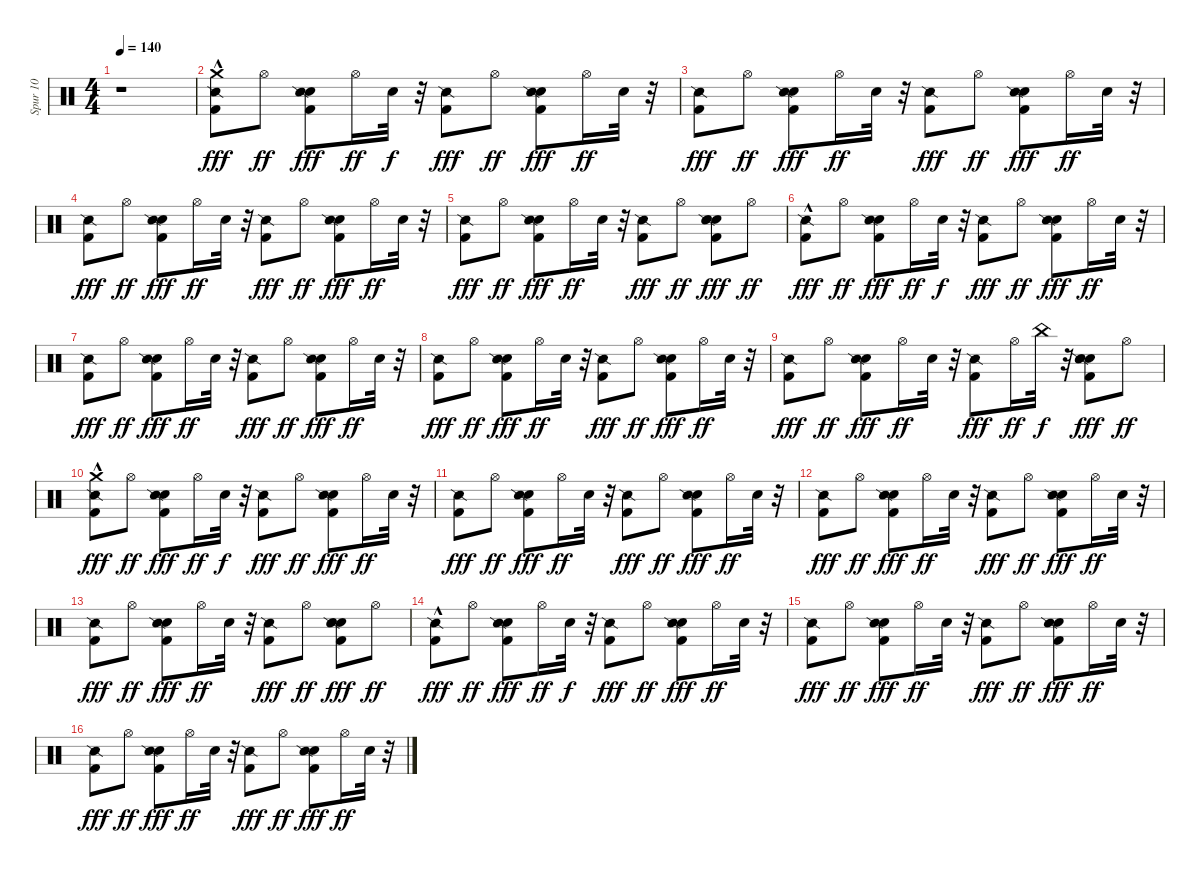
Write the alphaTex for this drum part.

\track ("Spur 10" "Spur 10") {instrument percussion}
\staff {score}
\articulation defaults
\ts (4 4)
\tempo 140
\clef neutral
\ks c
r.1{dy ff} |
("Kick (hit) 2"{hac} "Snare (side stick) 2" "Crash medium (hit)"{hac}).8{dy fff} "Hi-Hat (open)".8{dy ff} ("Kick (hit) 2" "Hand Clap (hit)" "Snare (side stick) 2").8{dy fff} "Hi-Hat (open)".16{dy ff} "Snare (hit) 2".32{dy f} r.32 ("Kick (hit) 2" "Snare (side stick) 2").8{dy fff} "Hi-Hat (open)".8{dy ff} ("Kick (hit) 2" "Hand Clap (hit)" "Snare (side stick) 2").8{dy fff} "Hi-Hat (open)".16{dy ff} "Snare (hit) 2".32 r.32 |
("Kick (hit) 2" "Snare (side stick) 2").8{dy fff} "Hi-Hat (open)".8{dy ff} ("Kick (hit) 2" "Hand Clap (hit)" "Snare (side stick) 2").8{dy fff} "Hi-Hat (open)".16{dy ff} "Snare (hit) 2".32 r.32 ("Kick (hit) 2" "Snare (side stick) 2").8{dy fff} "Hi-Hat (open)".8{dy ff} ("Kick (hit) 2" "Hand Clap (hit)" "Snare (side stick) 2").8{dy fff} "Hi-Hat (open)".16{dy ff} "Snare (hit) 2".32 r.32 |
("Kick (hit) 2" "Snare (side stick) 2").8{dy fff} "Hi-Hat (open)".8{dy ff} ("Kick (hit) 2" "Hand Clap (hit)" "Snare (side stick) 2").8{dy fff} "Hi-Hat (open)".16{dy ff} "Snare (hit) 2".32 r.32 ("Kick (hit) 2" "Snare (side stick) 2").8{dy fff} "Hi-Hat (open)".8{dy ff} ("Kick (hit) 2" "Hand Clap (hit)" "Snare (side stick) 2").8{dy fff} "Hi-Hat (open)".16{dy ff} "Snare (hit) 2".32 r.32 |
("Kick (hit) 2" "Snare (side stick) 2").8{dy fff} "Hi-Hat (open)".8{dy ff} ("Kick (hit) 2" "Hand Clap (hit)" "Snare (side stick) 2").8{dy fff} "Hi-Hat (open)".16{dy ff} "Snare (hit) 2".32 r.32 ("Kick (hit) 2" "Snare (side stick) 2").8{dy fff} "Hi-Hat (open)".8{dy ff} ("Kick (hit) 2" "Hand Clap (hit)" "Snare (hit) 2" "Snare (side stick) 2").8{dy fff} "Hi-Hat (open)".8{dy ff} |
("Kick (hit) 2"{hac} "Snare (side stick) 2").8{dy fff} "Hi-Hat (open)".8{dy ff} ("Kick (hit) 2" "Hand Clap (hit)" "Snare (side stick) 2").8{dy fff} "Hi-Hat (open)".16{dy ff} "Snare (hit) 2".32{dy f} r.32 ("Kick (hit) 2" "Snare (side stick) 2").8{dy fff} "Hi-Hat (open)".8{dy ff} ("Kick (hit) 2" "Hand Clap (hit)" "Snare (side stick) 2").8{dy fff} "Hi-Hat (open)".16{dy ff} "Snare (hit) 2".32 r.32 |
("Kick (hit) 2" "Snare (side stick) 2").8{dy fff} "Hi-Hat (open)".8{dy ff} ("Kick (hit) 2" "Hand Clap (hit)" "Snare (side stick) 2").8{dy fff} "Hi-Hat (open)".16{dy ff} "Snare (hit) 2".32 r.32 ("Kick (hit) 2" "Snare (side stick) 2").8{dy fff} "Hi-Hat (open)".8{dy ff} ("Kick (hit) 2" "Hand Clap (hit)" "Snare (side stick) 2").8{dy fff} "Hi-Hat (open)".16{dy ff} "Snare (hit) 2".32 r.32 |
("Kick (hit) 2" "Snare (side stick) 2").8{dy fff} "Hi-Hat (open)".8{dy ff} ("Kick (hit) 2" "Hand Clap (hit)" "Snare (side stick) 2").8{dy fff} "Hi-Hat (open)".16{dy ff} "Snare (hit) 2".32 r.32 ("Kick (hit) 2" "Snare (side stick) 2").8{dy fff} "Hi-Hat (open)".8{dy ff} ("Kick (hit) 2" "Hand Clap (hit)" "Snare (side stick) 2").8{dy fff} "Hi-Hat (open)".16{dy ff} "Snare (hit) 2".32 r.32 |
("Kick (hit) 2" "Snare (side stick) 2").8{dy fff} "Hi-Hat (open)".8{dy ff} ("Kick (hit) 2" "Hand Clap (hit)" "Snare (side stick) 2").8{dy fff} "Hi-Hat (open)".16{dy ff} "Snare (hit) 2".32 r.32 ("Kick (hit) 2" "Snare (side stick) 2").8{dy fff} "Hi-Hat (open)".16{dy ff} "China (hit)".32{dy f} r.32 ("Kick (hit) 2" "Hand Clap (hit)" "Snare (hit) 2" "Snare (side stick) 2").8{dy fff} "Hi-Hat (open)".8{dy ff} |
("Kick (hit) 2"{hac} "Snare (side stick) 2" "Crash medium (hit)").8{dy fff} "Hi-Hat (open)".8{dy ff} ("Kick (hit) 2" "Hand Clap (hit)" "Snare (side stick) 2").8{dy fff} "Hi-Hat (open)".16{dy ff} "Snare (hit) 2".32{dy f} r.32 ("Kick (hit) 2" "Snare (side stick) 2").8{dy fff} "Hi-Hat (open)".8{dy ff} ("Kick (hit) 2" "Hand Clap (hit)" "Snare (side stick) 2").8{dy fff} "Hi-Hat (open)".16{dy ff} "Snare (hit) 2".32 r.32 |
("Kick (hit) 2" "Snare (side stick) 2").8{dy fff} "Hi-Hat (open)".8{dy ff} ("Kick (hit) 2" "Hand Clap (hit)" "Snare (side stick) 2").8{dy fff} "Hi-Hat (open)".16{dy ff} "Snare (hit) 2".32 r.32 ("Kick (hit) 2" "Snare (side stick) 2").8{dy fff} "Hi-Hat (open)".8{dy ff} ("Kick (hit) 2" "Hand Clap (hit)" "Snare (side stick) 2").8{dy fff} "Hi-Hat (open)".16{dy ff} "Snare (hit) 2".32 r.32 |
("Kick (hit) 2" "Snare (side stick) 2").8{dy fff} "Hi-Hat (open)".8{dy ff} ("Kick (hit) 2" "Hand Clap (hit)" "Snare (side stick) 2").8{dy fff} "Hi-Hat (open)".16{dy ff} "Snare (hit) 2".32 r.32 ("Kick (hit) 2" "Snare (side stick) 2").8{dy fff} "Hi-Hat (open)".8{dy ff} ("Kick (hit) 2" "Hand Clap (hit)" "Snare (side stick) 2").8{dy fff} "Hi-Hat (open)".16{dy ff} "Snare (hit) 2".32 r.32 |
("Kick (hit) 2" "Snare (side stick) 2").8{dy fff} "Hi-Hat (open)".8{dy ff} ("Kick (hit) 2" "Hand Clap (hit)" "Snare (side stick) 2").8{dy fff} "Hi-Hat (open)".16{dy ff} "Snare (hit) 2".32 r.32 ("Kick (hit) 2" "Snare (side stick) 2").8{dy fff} "Hi-Hat (open)".8{dy ff} ("Kick (hit) 2" "Hand Clap (hit)" "Snare (hit) 2" "Snare (side stick) 2").8{dy fff} "Hi-Hat (open)".8{dy ff} |
("Kick (hit) 2"{hac} "Snare (side stick) 2").8{dy fff} "Hi-Hat (open)".8{dy ff} ("Kick (hit) 2" "Hand Clap (hit)" "Snare (side stick) 2").8{dy fff} "Hi-Hat (open)".16{dy ff} "Snare (hit) 2".32{dy f} r.32 ("Kick (hit) 2" "Snare (side stick) 2").8{dy fff} "Hi-Hat (open)".8{dy ff} ("Kick (hit) 2" "Hand Clap (hit)" "Snare (side stick) 2").8{dy fff} "Hi-Hat (open)".16{dy ff} "Snare (hit) 2".32 r.32 |
("Kick (hit) 2" "Snare (side stick) 2").8{dy fff} "Hi-Hat (open)".8{dy ff} ("Kick (hit) 2" "Hand Clap (hit)" "Snare (side stick) 2").8{dy fff} "Hi-Hat (open)".16{dy ff} "Snare (hit) 2".32 r.32 ("Kick (hit) 2" "Snare (side stick) 2").8{dy fff} "Hi-Hat (open)".8{dy ff} ("Kick (hit) 2" "Hand Clap (hit)" "Snare (side stick) 2").8{dy fff} "Hi-Hat (open)".16{dy ff} "Snare (hit) 2".32 r.32 |
("Kick (hit) 2" "Snare (side stick) 2").8{dy fff} "Hi-Hat (open)".8{dy ff} ("Kick (hit) 2" "Hand Clap (hit)" "Snare (side stick) 2").8{dy fff} "Hi-Hat (open)".16{dy ff} "Snare (hit) 2".32 r.32 ("Kick (hit) 2" "Snare (side stick) 2").8{dy fff} "Hi-Hat (open)".8{dy ff} ("Kick (hit) 2" "Hand Clap (hit)" "Snare (side stick) 2").8{dy fff} "Hi-Hat (open)".16{dy ff} "Snare (hit) 2".32 r.32
